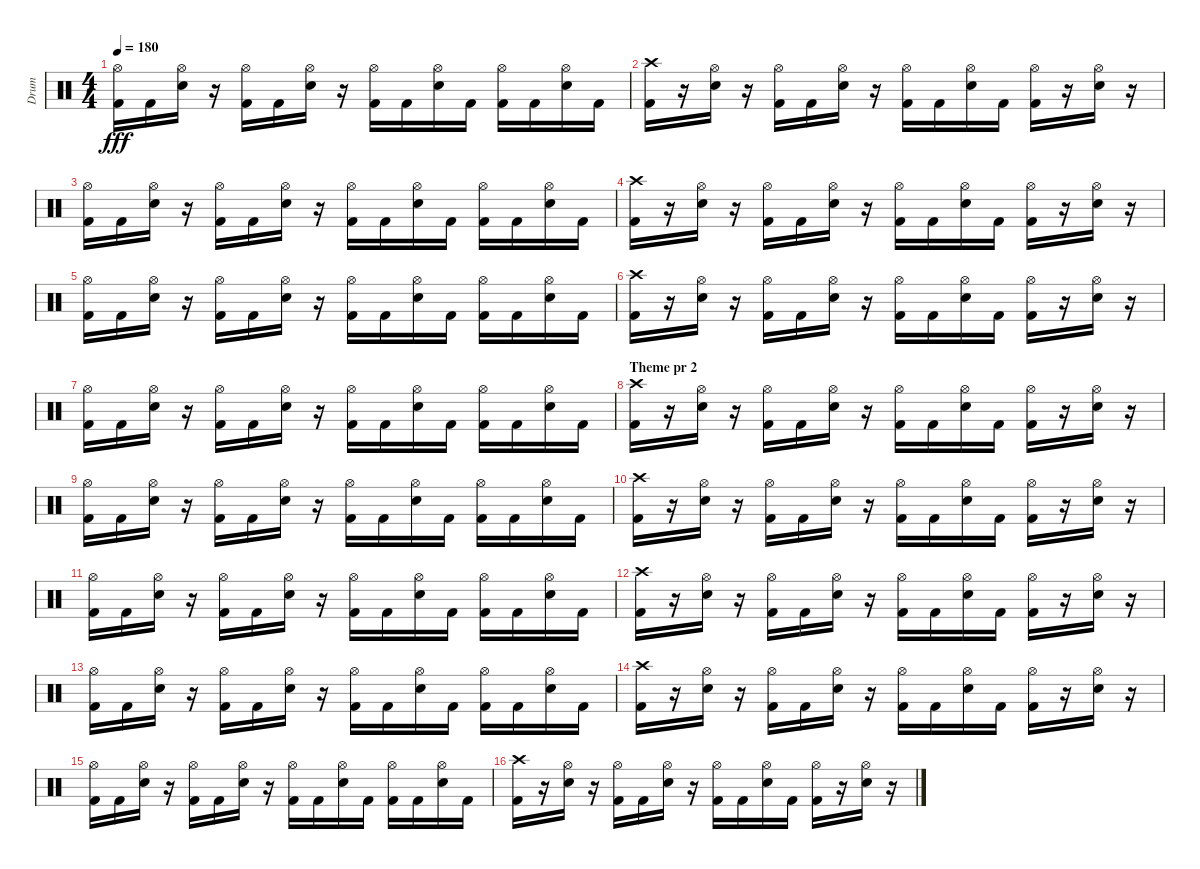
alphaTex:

\track ("Drum" "Drum") {instrument percussion}
\staff {score}
\articulation defaults
\ts (4 4)
\tempo 180
\clef neutral
\ks c
("Kick (hit) 2" "Hi-Hat (open)").16{dy fff} "Kick (hit) 2".16 ("Electric Snare (hit)" "Hi-Hat (open)").16 r.16 ("Kick (hit) 2" "Hi-Hat (open)").16 "Kick (hit) 2".16 ("Electric Snare (hit)" "Hi-Hat (open)").16 r.16 ("Kick (hit) 2" "Hi-Hat (open)").16 "Kick (hit) 2".16 ("Electric Snare (hit)" "Hi-Hat (open)").16 "Kick (hit) 2".16 ("Kick (hit) 2" "Hi-Hat (open)").16 "Kick (hit) 2".16 ("Electric Snare (hit)" "Hi-Hat (open)").16 "Kick (hit) 2".16 |
("Kick (hit) 2" "Crash high (hit)").16 r.16 ("Electric Snare (hit)" "Hi-Hat (open)").16 r.16 ("Kick (hit) 2" "Hi-Hat (open)").16 "Kick (hit) 2".16 ("Electric Snare (hit)" "Hi-Hat (open)").16 r.16 ("Kick (hit) 2" "Hi-Hat (open)").16 "Kick (hit) 2".16 ("Electric Snare (hit)" "Hi-Hat (open)").16 "Kick (hit) 2".16 ("Kick (hit) 2" "Hi-Hat (open)").16 r.16 ("Electric Snare (hit)" "Hi-Hat (open)").16 r.16 |
("Kick (hit) 2" "Hi-Hat (open)").16 "Kick (hit) 2".16 ("Electric Snare (hit)" "Hi-Hat (open)").16 r.16 ("Kick (hit) 2" "Hi-Hat (open)").16 "Kick (hit) 2".16 ("Electric Snare (hit)" "Hi-Hat (open)").16 r.16 ("Kick (hit) 2" "Hi-Hat (open)").16 "Kick (hit) 2".16 ("Electric Snare (hit)" "Hi-Hat (open)").16 "Kick (hit) 2".16 ("Kick (hit) 2" "Hi-Hat (open)").16 "Kick (hit) 2".16 ("Electric Snare (hit)" "Hi-Hat (open)").16 "Kick (hit) 2".16 |
("Kick (hit) 2" "Crash high (hit)").16 r.16 ("Electric Snare (hit)" "Hi-Hat (open)").16 r.16 ("Kick (hit) 2" "Hi-Hat (open)").16 "Kick (hit) 2".16 ("Electric Snare (hit)" "Hi-Hat (open)").16 r.16 ("Kick (hit) 2" "Hi-Hat (open)").16 "Kick (hit) 2".16 ("Electric Snare (hit)" "Hi-Hat (open)").16 "Kick (hit) 2".16 ("Kick (hit) 2" "Hi-Hat (open)").16 r.16 ("Electric Snare (hit)" "Hi-Hat (open)").16 r.16 |
("Kick (hit) 2" "Hi-Hat (open)").16 "Kick (hit) 2".16 ("Electric Snare (hit)" "Hi-Hat (open)").16 r.16 ("Kick (hit) 2" "Hi-Hat (open)").16 "Kick (hit) 2".16 ("Electric Snare (hit)" "Hi-Hat (open)").16 r.16 ("Kick (hit) 2" "Hi-Hat (open)").16 "Kick (hit) 2".16 ("Electric Snare (hit)" "Hi-Hat (open)").16 "Kick (hit) 2".16 ("Kick (hit) 2" "Hi-Hat (open)").16 "Kick (hit) 2".16 ("Electric Snare (hit)" "Hi-Hat (open)").16 "Kick (hit) 2".16 |
("Kick (hit) 2" "Crash high (hit)").16 r.16 ("Electric Snare (hit)" "Hi-Hat (open)").16 r.16 ("Kick (hit) 2" "Hi-Hat (open)").16 "Kick (hit) 2".16 ("Electric Snare (hit)" "Hi-Hat (open)").16 r.16 ("Kick (hit) 2" "Hi-Hat (open)").16 "Kick (hit) 2".16 ("Electric Snare (hit)" "Hi-Hat (open)").16 "Kick (hit) 2".16 ("Kick (hit) 2" "Hi-Hat (open)").16 r.16 ("Electric Snare (hit)" "Hi-Hat (open)").16 r.16 |
("Kick (hit) 2" "Hi-Hat (open)").16 "Kick (hit) 2".16 ("Electric Snare (hit)" "Hi-Hat (open)").16 r.16 ("Kick (hit) 2" "Hi-Hat (open)").16 "Kick (hit) 2".16 ("Electric Snare (hit)" "Hi-Hat (open)").16 r.16 ("Kick (hit) 2" "Hi-Hat (open)").16 "Kick (hit) 2".16 ("Electric Snare (hit)" "Hi-Hat (open)").16 "Kick (hit) 2".16 ("Kick (hit) 2" "Hi-Hat (open)").16 "Kick (hit) 2".16 ("Electric Snare (hit)" "Hi-Hat (open)").16 "Kick (hit) 2".16 |
\section ("" "Theme pr 2")
("Kick (hit) 2" "Crash high (hit)").16 r.16 ("Electric Snare (hit)" "Hi-Hat (open)").16 r.16 ("Kick (hit) 2" "Hi-Hat (open)").16 "Kick (hit) 2".16 ("Electric Snare (hit)" "Hi-Hat (open)").16 r.16 ("Kick (hit) 2" "Hi-Hat (open)").16 "Kick (hit) 2".16 ("Electric Snare (hit)" "Hi-Hat (open)").16 "Kick (hit) 2".16 ("Kick (hit) 2" "Hi-Hat (open)").16 r.16 ("Electric Snare (hit)" "Hi-Hat (open)").16 r.16 |
("Kick (hit) 2" "Hi-Hat (open)").16 "Kick (hit) 2".16 ("Electric Snare (hit)" "Hi-Hat (open)").16 r.16 ("Kick (hit) 2" "Hi-Hat (open)").16 "Kick (hit) 2".16 ("Electric Snare (hit)" "Hi-Hat (open)").16 r.16 ("Kick (hit) 2" "Hi-Hat (open)").16 "Kick (hit) 2".16 ("Electric Snare (hit)" "Hi-Hat (open)").16 "Kick (hit) 2".16 ("Kick (hit) 2" "Hi-Hat (open)").16 "Kick (hit) 2".16 ("Electric Snare (hit)" "Hi-Hat (open)").16 "Kick (hit) 2".16 |
("Kick (hit) 2" "Crash high (hit)").16 r.16 ("Electric Snare (hit)" "Hi-Hat (open)").16 r.16 ("Kick (hit) 2" "Hi-Hat (open)").16 "Kick (hit) 2".16 ("Electric Snare (hit)" "Hi-Hat (open)").16 r.16 ("Kick (hit) 2" "Hi-Hat (open)").16 "Kick (hit) 2".16 ("Electric Snare (hit)" "Hi-Hat (open)").16 "Kick (hit) 2".16 ("Kick (hit) 2" "Hi-Hat (open)").16 r.16 ("Electric Snare (hit)" "Hi-Hat (open)").16 r.16 |
("Kick (hit) 2" "Hi-Hat (open)").16 "Kick (hit) 2".16 ("Electric Snare (hit)" "Hi-Hat (open)").16 r.16 ("Kick (hit) 2" "Hi-Hat (open)").16 "Kick (hit) 2".16 ("Electric Snare (hit)" "Hi-Hat (open)").16 r.16 ("Kick (hit) 2" "Hi-Hat (open)").16 "Kick (hit) 2".16 ("Electric Snare (hit)" "Hi-Hat (open)").16 "Kick (hit) 2".16 ("Kick (hit) 2" "Hi-Hat (open)").16 "Kick (hit) 2".16 ("Electric Snare (hit)" "Hi-Hat (open)").16 "Kick (hit) 2".16 |
("Kick (hit) 2" "Crash high (hit)").16 r.16 ("Electric Snare (hit)" "Hi-Hat (open)").16 r.16 ("Kick (hit) 2" "Hi-Hat (open)").16 "Kick (hit) 2".16 ("Electric Snare (hit)" "Hi-Hat (open)").16 r.16 ("Kick (hit) 2" "Hi-Hat (open)").16 "Kick (hit) 2".16 ("Electric Snare (hit)" "Hi-Hat (open)").16 "Kick (hit) 2".16 ("Kick (hit) 2" "Hi-Hat (open)").16 r.16 ("Electric Snare (hit)" "Hi-Hat (open)").16 r.16 |
("Kick (hit) 2" "Hi-Hat (open)").16 "Kick (hit) 2".16 ("Electric Snare (hit)" "Hi-Hat (open)").16 r.16 ("Kick (hit) 2" "Hi-Hat (open)").16 "Kick (hit) 2".16 ("Electric Snare (hit)" "Hi-Hat (open)").16 r.16 ("Kick (hit) 2" "Hi-Hat (open)").16 "Kick (hit) 2".16 ("Electric Snare (hit)" "Hi-Hat (open)").16 "Kick (hit) 2".16 ("Kick (hit) 2" "Hi-Hat (open)").16 "Kick (hit) 2".16 ("Electric Snare (hit)" "Hi-Hat (open)").16 "Kick (hit) 2".16 |
("Kick (hit) 2" "Crash high (hit)").16 r.16 ("Electric Snare (hit)" "Hi-Hat (open)").16 r.16 ("Kick (hit) 2" "Hi-Hat (open)").16 "Kick (hit) 2".16 ("Electric Snare (hit)" "Hi-Hat (open)").16 r.16 ("Kick (hit) 2" "Hi-Hat (open)").16 "Kick (hit) 2".16 ("Electric Snare (hit)" "Hi-Hat (open)").16 "Kick (hit) 2".16 ("Kick (hit) 2" "Hi-Hat (open)").16 r.16 ("Electric Snare (hit)" "Hi-Hat (open)").16 r.16 |
("Kick (hit) 2" "Hi-Hat (open)").16 "Kick (hit) 2".16 ("Electric Snare (hit)" "Hi-Hat (open)").16 r.16 ("Kick (hit) 2" "Hi-Hat (open)").16 "Kick (hit) 2".16 ("Electric Snare (hit)" "Hi-Hat (open)").16 r.16 ("Kick (hit) 2" "Hi-Hat (open)").16 "Kick (hit) 2".16 ("Electric Snare (hit)" "Hi-Hat (open)").16 "Kick (hit) 2".16 ("Kick (hit) 2" "Hi-Hat (open)").16 "Kick (hit) 2".16 ("Electric Snare (hit)" "Hi-Hat (open)").16 "Kick (hit) 2".16 |
("Kick (hit) 2" "Crash high (hit)").16 r.16 ("Electric Snare (hit)" "Hi-Hat (open)").16 r.16 ("Kick (hit) 2" "Hi-Hat (open)").16 "Kick (hit) 2".16 ("Electric Snare (hit)" "Hi-Hat (open)").16 r.16 ("Kick (hit) 2" "Hi-Hat (open)").16 "Kick (hit) 2".16 ("Electric Snare (hit)" "Hi-Hat (open)").16 "Kick (hit) 2".16 ("Kick (hit) 2" "Hi-Hat (open)").16 r.16 ("Electric Snare (hit)" "Hi-Hat (open)").16 r.16
